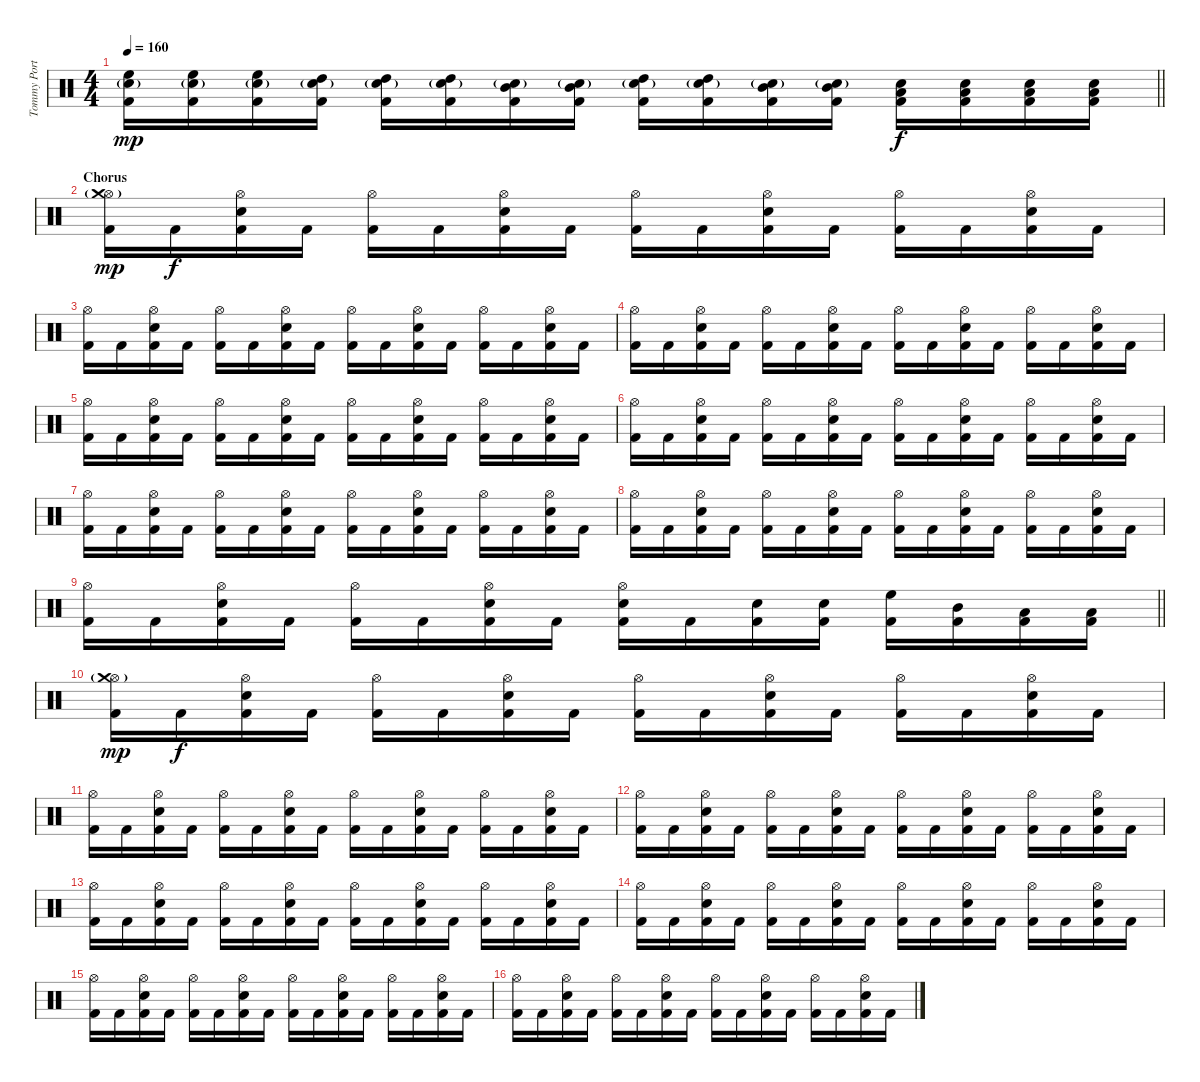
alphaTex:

\track ("Tommy Portino" "Tommy Port") {instrument percussion}
\staff {score}
\articulation defaults
\ts (4 4)
\tempo 160
\clef neutral
\barLineRight lightlight
\ks c
("High Floor Tom (hit)" "Snare (hit) 2"{g} "Kick (hit) 2").16{dy mp} ("High Floor Tom (hit)" "Snare (hit) 2"{g} "Kick (hit) 2").16 ("High Floor Tom (hit)" "Snare (hit) 2"{g} "Kick (hit) 2").16 ("High Tom (hit)" "Snare (hit) 2"{g} "Kick (hit) 2").16 ("High Tom (hit)" "Snare (hit) 2"{g} "Kick (hit) 2").16 ("High Tom (hit)" "Snare (hit) 2"{g} "Kick (hit) 2").16 ("Mid Tom (hit)" "Snare (hit) 2"{g} "Kick (hit) 2").16 ("Mid Tom (hit)" "Snare (hit) 2"{g} "Kick (hit) 2").16 ("High Tom (hit)" "Snare (hit) 2"{g} "Kick (hit) 2").16 ("High Tom (hit)" "Snare (hit) 2"{g} "Kick (hit) 2").16 ("Mid Tom (hit)" "Snare (hit) 2"{g} "Kick (hit) 2").16 ("Mid Tom (hit)" "Snare (hit) 2"{g} "Kick (hit) 2").16 ("Low Tom (hit)" "Snare (hit) 2" "Kick (hit) 2").16{dy f} ("Low Tom (hit)" "Snare (hit) 2" "Kick (hit) 2").16 ("Low Tom (hit)" "Snare (hit) 2" "Kick (hit) 2").16 ("Low Tom (hit)" "Snare (hit) 2" "Kick (hit) 2").16 |
\section ("" "Chorus")
("Hi-Hat (open)"{g} "Crash medium (hit)" "Kick (hit) 2").16{dy mp} "Kick (hit) 2".16{dy f} ("Hi-Hat (open)" "Snare (hit) 2" "Kick (hit) 2").16 "Kick (hit) 2".16 ("Hi-Hat (open)" "Kick (hit) 2").16 "Kick (hit) 2".16 ("Hi-Hat (open)" "Snare (hit) 2" "Kick (hit) 2").16 "Kick (hit) 2".16 ("Hi-Hat (open)" "Kick (hit) 2").16 "Kick (hit) 2".16 ("Hi-Hat (open)" "Snare (hit) 2" "Kick (hit) 2").16 "Kick (hit) 2".16 ("Hi-Hat (open)" "Kick (hit) 2").16 "Kick (hit) 2".16 ("Hi-Hat (open)" "Snare (hit) 2" "Kick (hit) 2").16 "Kick (hit) 2".16 |
("Hi-Hat (open)" "Kick (hit) 2").16 "Kick (hit) 2".16 ("Hi-Hat (open)" "Snare (hit) 2" "Kick (hit) 2").16 "Kick (hit) 2".16 ("Hi-Hat (open)" "Kick (hit) 2").16 "Kick (hit) 2".16 ("Hi-Hat (open)" "Snare (hit) 2" "Kick (hit) 2").16 "Kick (hit) 2".16 ("Hi-Hat (open)" "Kick (hit) 2").16 "Kick (hit) 2".16 ("Hi-Hat (open)" "Snare (hit) 2" "Kick (hit) 2").16 "Kick (hit) 2".16 ("Hi-Hat (open)" "Kick (hit) 2").16 "Kick (hit) 2".16 ("Hi-Hat (open)" "Snare (hit) 2" "Kick (hit) 2").16 "Kick (hit) 2".16 |
("Hi-Hat (open)" "Kick (hit) 2").16 "Kick (hit) 2".16 ("Hi-Hat (open)" "Snare (hit) 2" "Kick (hit) 2").16 "Kick (hit) 2".16 ("Hi-Hat (open)" "Kick (hit) 2").16 "Kick (hit) 2".16 ("Hi-Hat (open)" "Snare (hit) 2" "Kick (hit) 2").16 "Kick (hit) 2".16 ("Hi-Hat (open)" "Kick (hit) 2").16 "Kick (hit) 2".16 ("Hi-Hat (open)" "Snare (hit) 2" "Kick (hit) 2").16 "Kick (hit) 2".16 ("Hi-Hat (open)" "Kick (hit) 2").16 "Kick (hit) 2".16 ("Hi-Hat (open)" "Snare (hit) 2" "Kick (hit) 2").16 "Kick (hit) 2".16 |
("Hi-Hat (open)" "Kick (hit) 2").16 "Kick (hit) 2".16 ("Hi-Hat (open)" "Snare (hit) 2" "Kick (hit) 2").16 "Kick (hit) 2".16 ("Hi-Hat (open)" "Kick (hit) 2").16 "Kick (hit) 2".16 ("Hi-Hat (open)" "Snare (hit) 2" "Kick (hit) 2").16 "Kick (hit) 2".16 ("Hi-Hat (open)" "Kick (hit) 2").16 "Kick (hit) 2".16 ("Hi-Hat (open)" "Snare (hit) 2" "Kick (hit) 2").16 "Kick (hit) 2".16 ("Hi-Hat (open)" "Kick (hit) 2").16 "Kick (hit) 2".16 ("Hi-Hat (open)" "Snare (hit) 2" "Kick (hit) 2").16 "Kick (hit) 2".16 |
("Hi-Hat (open)" "Kick (hit) 2").16 "Kick (hit) 2".16 ("Hi-Hat (open)" "Snare (hit) 2" "Kick (hit) 2").16 "Kick (hit) 2".16 ("Hi-Hat (open)" "Kick (hit) 2").16 "Kick (hit) 2".16 ("Hi-Hat (open)" "Snare (hit) 2" "Kick (hit) 2").16 "Kick (hit) 2".16 ("Hi-Hat (open)" "Kick (hit) 2").16 "Kick (hit) 2".16 ("Hi-Hat (open)" "Snare (hit) 2" "Kick (hit) 2").16 "Kick (hit) 2".16 ("Hi-Hat (open)" "Kick (hit) 2").16 "Kick (hit) 2".16 ("Hi-Hat (open)" "Snare (hit) 2" "Kick (hit) 2").16 "Kick (hit) 2".16 |
("Hi-Hat (open)" "Kick (hit) 2").16 "Kick (hit) 2".16 ("Hi-Hat (open)" "Snare (hit) 2" "Kick (hit) 2").16 "Kick (hit) 2".16 ("Hi-Hat (open)" "Kick (hit) 2").16 "Kick (hit) 2".16 ("Hi-Hat (open)" "Snare (hit) 2" "Kick (hit) 2").16 "Kick (hit) 2".16 ("Hi-Hat (open)" "Kick (hit) 2").16 "Kick (hit) 2".16 ("Hi-Hat (open)" "Snare (hit) 2" "Kick (hit) 2").16 "Kick (hit) 2".16 ("Hi-Hat (open)" "Kick (hit) 2").16 "Kick (hit) 2".16 ("Hi-Hat (open)" "Snare (hit) 2" "Kick (hit) 2").16 "Kick (hit) 2".16 |
("Hi-Hat (open)" "Kick (hit) 2").16 "Kick (hit) 2".16 ("Hi-Hat (open)" "Snare (hit) 2" "Kick (hit) 2").16 "Kick (hit) 2".16 ("Hi-Hat (open)" "Kick (hit) 2").16 "Kick (hit) 2".16 ("Hi-Hat (open)" "Snare (hit) 2" "Kick (hit) 2").16 "Kick (hit) 2".16 ("Hi-Hat (open)" "Kick (hit) 2").16 "Kick (hit) 2".16 ("Hi-Hat (open)" "Snare (hit) 2" "Kick (hit) 2").16 "Kick (hit) 2".16 ("Hi-Hat (open)" "Kick (hit) 2").16 "Kick (hit) 2".16 ("Hi-Hat (open)" "Snare (hit) 2" "Kick (hit) 2").16 "Kick (hit) 2".16 |
\barLineRight lightlight
("Hi-Hat (open)" "Kick (hit) 2").16 "Kick (hit) 2".16 ("Hi-Hat (open)" "Snare (hit) 2" "Kick (hit) 2").16 "Kick (hit) 2".16 ("Hi-Hat (open)" "Kick (hit) 2").16 "Kick (hit) 2".16 ("Hi-Hat (open)" "Snare (hit) 2" "Kick (hit) 2").16 "Kick (hit) 2".16 ("Hi-Hat (open)" "Snare (hit) 2" "Kick (hit) 2").16 "Kick (hit) 2".16 ("Snare (hit) 2" "Kick (hit) 2").16 ("Snare (hit) 2" "Kick (hit) 2").16 ("High Floor Tom (hit)" "Kick (hit) 2").16 ("Mid Tom (hit)" "Kick (hit) 2").16 ("Low Tom (hit)" "Kick (hit) 2").16 ("Low Tom (hit)" "Kick (hit) 2").16 |
("Hi-Hat (open)"{g} "Crash medium (hit)" "Kick (hit) 2").16{dy mp} "Kick (hit) 2".16{dy f} ("Hi-Hat (open)" "Snare (hit) 2" "Kick (hit) 2").16 "Kick (hit) 2".16 ("Hi-Hat (open)" "Kick (hit) 2").16 "Kick (hit) 2".16 ("Hi-Hat (open)" "Snare (hit) 2" "Kick (hit) 2").16 "Kick (hit) 2".16 ("Hi-Hat (open)" "Kick (hit) 2").16 "Kick (hit) 2".16 ("Hi-Hat (open)" "Snare (hit) 2" "Kick (hit) 2").16 "Kick (hit) 2".16 ("Hi-Hat (open)" "Kick (hit) 2").16 "Kick (hit) 2".16 ("Hi-Hat (open)" "Snare (hit) 2" "Kick (hit) 2").16 "Kick (hit) 2".16 |
("Hi-Hat (open)" "Kick (hit) 2").16 "Kick (hit) 2".16 ("Hi-Hat (open)" "Snare (hit) 2" "Kick (hit) 2").16 "Kick (hit) 2".16 ("Hi-Hat (open)" "Kick (hit) 2").16 "Kick (hit) 2".16 ("Hi-Hat (open)" "Snare (hit) 2" "Kick (hit) 2").16 "Kick (hit) 2".16 ("Hi-Hat (open)" "Kick (hit) 2").16 "Kick (hit) 2".16 ("Hi-Hat (open)" "Snare (hit) 2" "Kick (hit) 2").16 "Kick (hit) 2".16 ("Hi-Hat (open)" "Kick (hit) 2").16 "Kick (hit) 2".16 ("Hi-Hat (open)" "Snare (hit) 2" "Kick (hit) 2").16 "Kick (hit) 2".16 |
("Hi-Hat (open)" "Kick (hit) 2").16 "Kick (hit) 2".16 ("Hi-Hat (open)" "Snare (hit) 2" "Kick (hit) 2").16 "Kick (hit) 2".16 ("Hi-Hat (open)" "Kick (hit) 2").16 "Kick (hit) 2".16 ("Hi-Hat (open)" "Snare (hit) 2" "Kick (hit) 2").16 "Kick (hit) 2".16 ("Hi-Hat (open)" "Kick (hit) 2").16 "Kick (hit) 2".16 ("Hi-Hat (open)" "Snare (hit) 2" "Kick (hit) 2").16 "Kick (hit) 2".16 ("Hi-Hat (open)" "Kick (hit) 2").16 "Kick (hit) 2".16 ("Hi-Hat (open)" "Snare (hit) 2" "Kick (hit) 2").16 "Kick (hit) 2".16 |
("Hi-Hat (open)" "Kick (hit) 2").16 "Kick (hit) 2".16 ("Hi-Hat (open)" "Snare (hit) 2" "Kick (hit) 2").16 "Kick (hit) 2".16 ("Hi-Hat (open)" "Kick (hit) 2").16 "Kick (hit) 2".16 ("Hi-Hat (open)" "Snare (hit) 2" "Kick (hit) 2").16 "Kick (hit) 2".16 ("Hi-Hat (open)" "Kick (hit) 2").16 "Kick (hit) 2".16 ("Hi-Hat (open)" "Snare (hit) 2" "Kick (hit) 2").16 "Kick (hit) 2".16 ("Hi-Hat (open)" "Kick (hit) 2").16 "Kick (hit) 2".16 ("Hi-Hat (open)" "Snare (hit) 2" "Kick (hit) 2").16 "Kick (hit) 2".16 |
("Hi-Hat (open)" "Kick (hit) 2").16 "Kick (hit) 2".16 ("Hi-Hat (open)" "Snare (hit) 2" "Kick (hit) 2").16 "Kick (hit) 2".16 ("Hi-Hat (open)" "Kick (hit) 2").16 "Kick (hit) 2".16 ("Hi-Hat (open)" "Snare (hit) 2" "Kick (hit) 2").16 "Kick (hit) 2".16 ("Hi-Hat (open)" "Kick (hit) 2").16 "Kick (hit) 2".16 ("Hi-Hat (open)" "Snare (hit) 2" "Kick (hit) 2").16 "Kick (hit) 2".16 ("Hi-Hat (open)" "Kick (hit) 2").16 "Kick (hit) 2".16 ("Hi-Hat (open)" "Snare (hit) 2" "Kick (hit) 2").16 "Kick (hit) 2".16 |
("Hi-Hat (open)" "Kick (hit) 2").16 "Kick (hit) 2".16 ("Hi-Hat (open)" "Snare (hit) 2" "Kick (hit) 2").16 "Kick (hit) 2".16 ("Hi-Hat (open)" "Kick (hit) 2").16 "Kick (hit) 2".16 ("Hi-Hat (open)" "Snare (hit) 2" "Kick (hit) 2").16 "Kick (hit) 2".16 ("Hi-Hat (open)" "Kick (hit) 2").16 "Kick (hit) 2".16 ("Hi-Hat (open)" "Snare (hit) 2" "Kick (hit) 2").16 "Kick (hit) 2".16 ("Hi-Hat (open)" "Kick (hit) 2").16 "Kick (hit) 2".16 ("Hi-Hat (open)" "Snare (hit) 2" "Kick (hit) 2").16 "Kick (hit) 2".16 |
("Hi-Hat (open)" "Kick (hit) 2").16 "Kick (hit) 2".16 ("Hi-Hat (open)" "Snare (hit) 2" "Kick (hit) 2").16 "Kick (hit) 2".16 ("Hi-Hat (open)" "Kick (hit) 2").16 "Kick (hit) 2".16 ("Hi-Hat (open)" "Snare (hit) 2" "Kick (hit) 2").16 "Kick (hit) 2".16 ("Hi-Hat (open)" "Kick (hit) 2").16 "Kick (hit) 2".16 ("Hi-Hat (open)" "Snare (hit) 2" "Kick (hit) 2").16 "Kick (hit) 2".16 ("Hi-Hat (open)" "Kick (hit) 2").16 "Kick (hit) 2".16 ("Hi-Hat (open)" "Snare (hit) 2" "Kick (hit) 2").16 "Kick (hit) 2".16
